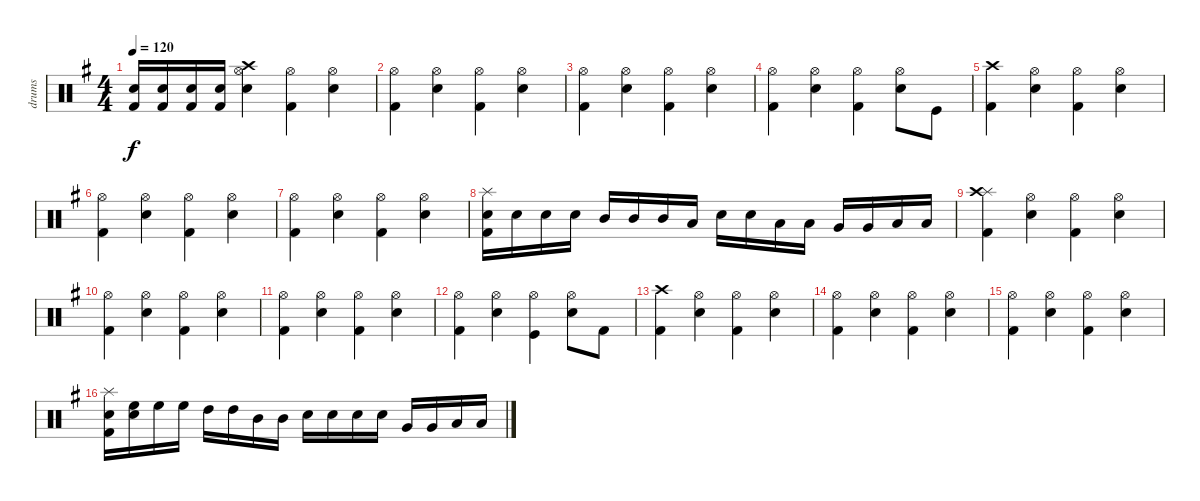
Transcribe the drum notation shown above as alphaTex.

\track ("drums" "drums") {instrument percussion}
\staff {score}
\articulation defaults
\ts (4 4)
\tempo 120
\clef neutral
\ks eminor
("Kick (hit) 2" "Electric Snare (hit)").16{dy f} ("Kick (hit) 2" "Electric Snare (hit)").16 ("Kick (hit) 2" "Electric Snare (hit)").16 ("Kick (hit) 2" "Electric Snare (hit)").16 ("Electric Snare (hit)" "Hi-Hat (open)" "Crash high (hit)").4 ("Kick (hit) 2" "Hi-Hat (open)").4 ("Electric Snare (hit)" "Hi-Hat (open)").4 |
("Kick (hit) 2" "Hi-Hat (open)").4 ("Electric Snare (hit)" "Hi-Hat (open)").4 ("Kick (hit) 2" "Hi-Hat (open)").4 ("Electric Snare (hit)" "Hi-Hat (open)").4 |
("Kick (hit) 2" "Hi-Hat (open)").4 ("Electric Snare (hit)" "Hi-Hat (open)").4 ("Kick (hit) 2" "Hi-Hat (open)").4 ("Electric Snare (hit)" "Hi-Hat (open)").4 |
("Kick (hit) 2" "Hi-Hat (open)").4 ("Electric Snare (hit)" "Hi-Hat (open)").4 ("Kick (hit) 2" "Hi-Hat (open)").4 ("Electric Snare (hit)" "Hi-Hat (open)").8 "Kick (hit)".8 |
("Kick (hit) 2" "Crash high (hit)").4 ("Electric Snare (hit)" "Hi-Hat (open)").4 ("Kick (hit) 2" "Hi-Hat (open)").4 ("Electric Snare (hit)" "Hi-Hat (open)").4 |
("Kick (hit) 2" "Hi-Hat (open)").4 ("Electric Snare (hit)" "Hi-Hat (open)").4 ("Kick (hit) 2" "Hi-Hat (open)").4 ("Electric Snare (hit)" "Hi-Hat (open)").4 |
("Kick (hit) 2" "Hi-Hat (open)").4 ("Electric Snare (hit)" "Hi-Hat (open)").4 ("Kick (hit) 2" "Hi-Hat (open)").4 ("Electric Snare (hit)" "Hi-Hat (open)").4 |
("Kick (hit) 2" "Electric Snare (hit)" "Splash (hit)").16 "Electric Snare (hit)".16 "Electric Snare (hit)".16 "Electric Snare (hit)".16 "Mid Tom (hit)".16 "Mid Tom (hit)".16 "Mid Tom (hit)".16 "Low Tom (hit)".16 "Electric Snare (hit)".16 "Electric Snare (hit)".16 "Low Tom (hit)".16 "Low Tom (hit)".16 "Very Low Tom (hit)".16 "Very Low Tom (hit)".16 "Low Floor Tom (hit)".16 "Low Floor Tom (hit)".16 |
("Kick (hit) 2" "Splash (hit)" "Crash high (hit)").4 ("Electric Snare (hit)" "Hi-Hat (open)").4 ("Kick (hit) 2" "Hi-Hat (open)").4 ("Electric Snare (hit)" "Hi-Hat (open)").4 |
("Kick (hit) 2" "Hi-Hat (open)").4 ("Electric Snare (hit)" "Hi-Hat (open)").4 ("Kick (hit) 2" "Hi-Hat (open)").4 ("Electric Snare (hit)" "Hi-Hat (open)").4 |
("Kick (hit) 2" "Hi-Hat (open)").4 ("Electric Snare (hit)" "Hi-Hat (open)").4 ("Kick (hit) 2" "Hi-Hat (open)").4 ("Electric Snare (hit)" "Hi-Hat (open)").4 |
("Kick (hit) 2" "Hi-Hat (open)").4 ("Electric Snare (hit)" "Hi-Hat (open)").4 ("Kick (hit)" "Hi-Hat (open)").4 ("Electric Snare (hit)" "Hi-Hat (open)").8 "Kick (hit) 2".8 |
("Kick (hit) 2" "Crash high (hit)").4 ("Electric Snare (hit)" "Hi-Hat (open)").4 ("Kick (hit) 2" "Hi-Hat (open)").4 ("Electric Snare (hit)" "Hi-Hat (open)").4 |
("Kick (hit) 2" "Hi-Hat (open)").4 ("Electric Snare (hit)" "Hi-Hat (open)").4 ("Kick (hit) 2" "Hi-Hat (open)").4 ("Electric Snare (hit)" "Hi-Hat (open)").4 |
("Kick (hit) 2" "Hi-Hat (open)").4 ("Electric Snare (hit)" "Hi-Hat (open)").4 ("Kick (hit) 2" "Hi-Hat (open)").4 ("Electric Snare (hit)" "Hi-Hat (open)").4 |
("Kick (hit) 2" "Electric Snare (hit)" "Splash (hit)").16 ("Electric Snare (hit)" "High Floor Tom (hit)").16 "High Floor Tom (hit)".16 "High Floor Tom (hit)".16 "High Tom (hit)".16 "High Tom (hit)".16 "Mid Tom (hit)".16 "Mid Tom (hit)".16 "Electric Snare (hit)".16 "Electric Snare (hit)".16 "Electric Snare (hit)".16 "Electric Snare (hit)".16 "Very Low Tom (hit)".16 "Very Low Tom (hit)".16 "Low Floor Tom (hit)".16 "Low Floor Tom (hit)".16
